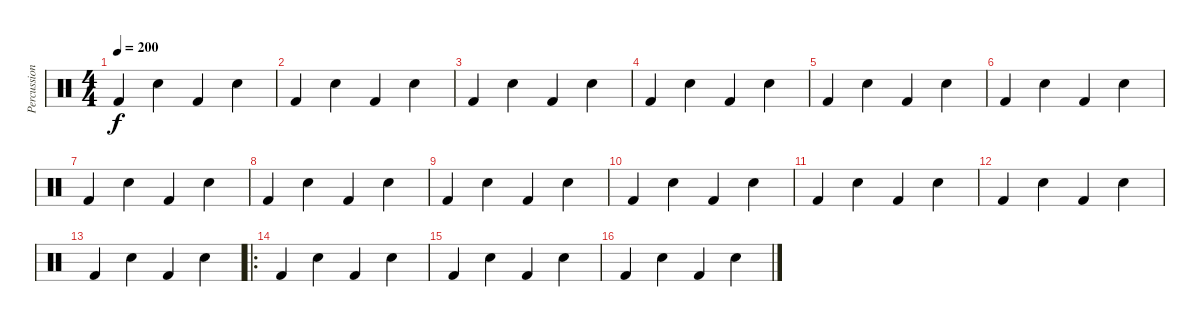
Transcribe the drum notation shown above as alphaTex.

\track ("Percussion" "Percussion") {instrument percussion}
\staff {score}
\articulation defaults
\ts (4 4)
\tempo 200
\clef neutral
\ks c "Kick (hit) 2".4{dy f} "Electric Snare (hit)".4 "Kick (hit) 2".4 "Electric Snare (hit)".4
|
"Kick (hit) 2".4 "Electric Snare (hit)".4 "Kick (hit) 2".4 "Electric Snare (hit)".4 |
"Kick (hit) 2".4 "Electric Snare (hit)".4 "Kick (hit) 2".4 "Electric Snare (hit)".4 |
"Kick (hit) 2".4 "Electric Snare (hit)".4 "Kick (hit) 2".4 "Electric Snare (hit)".4 |
"Kick (hit) 2".4 "Electric Snare (hit)".4 "Kick (hit) 2".4 "Electric Snare (hit)".4 |
"Kick (hit) 2".4 "Electric Snare (hit)".4 "Kick (hit) 2".4 "Electric Snare (hit)".4 |
"Kick (hit) 2".4 "Electric Snare (hit)".4 "Kick (hit) 2".4 "Electric Snare (hit)".4 |
"Kick (hit) 2".4 "Electric Snare (hit)".4 "Kick (hit) 2".4 "Electric Snare (hit)".4 |
"Kick (hit) 2".4 "Electric Snare (hit)".4 "Kick (hit) 2".4 "Electric Snare (hit)".4 |
"Kick (hit) 2".4 "Electric Snare (hit)".4 "Kick (hit) 2".4 "Electric Snare (hit)".4 |
"Kick (hit) 2".4 "Electric Snare (hit)".4 "Kick (hit) 2".4 "Electric Snare (hit)".4 |
"Kick (hit) 2".4 "Electric Snare (hit)".4 "Kick (hit) 2".4 "Electric Snare (hit)".4 |
"Kick (hit) 2".4 "Electric Snare (hit)".4 "Kick (hit) 2".4 "Electric Snare (hit)".4 |
\ro "Kick (hit) 2".4 "Electric Snare (hit)".4 "Kick (hit) 2".4 "Electric Snare (hit)".4
|
"Kick (hit) 2".4 "Electric Snare (hit)".4 "Kick (hit) 2".4 "Electric Snare (hit)".4 |
"Kick (hit) 2".4 "Electric Snare (hit)".4 "Kick (hit) 2".4 "Electric Snare (hit)".4
